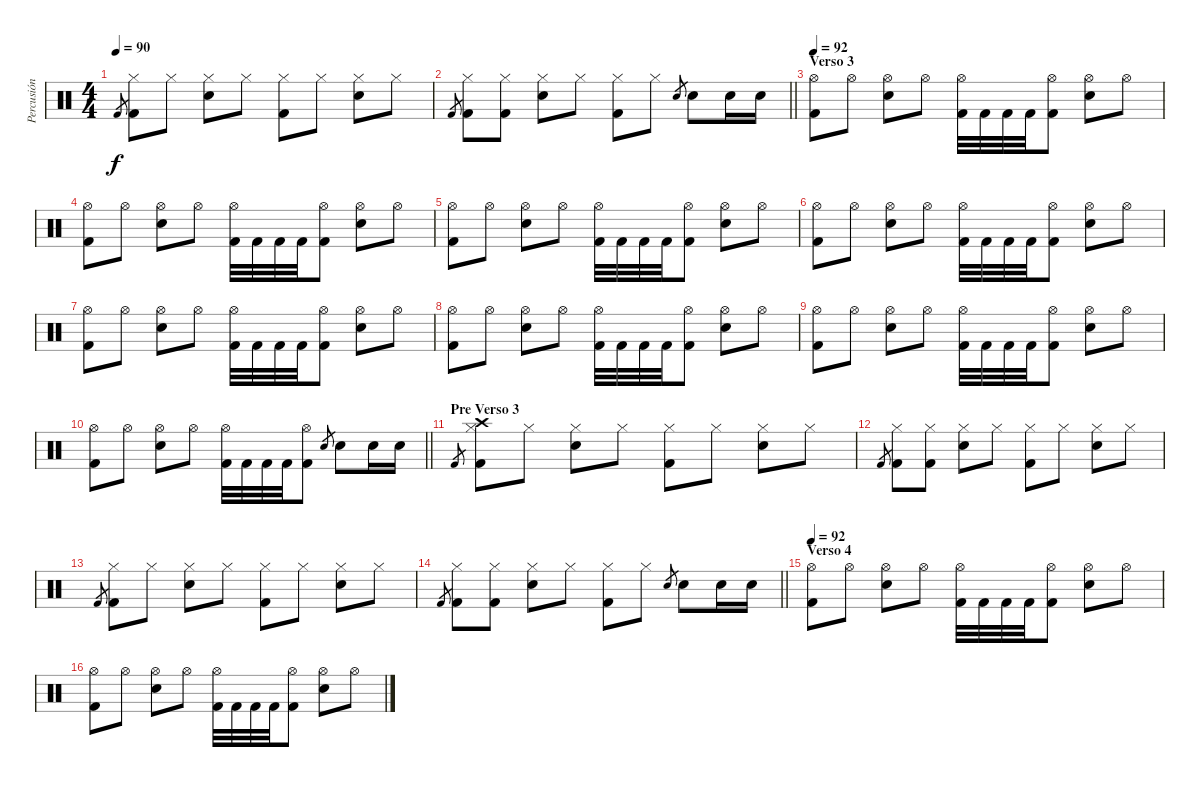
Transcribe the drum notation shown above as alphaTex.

\track ("Percusión" "Percusión") {instrument percussion}
\staff {score}
\articulation defaults
\ts (4 4)
\tempo 90
\clef neutral
\ks c "Kick (hit) 2".8{gr dy f}
("Hi-Hat (closed)" "Kick (hit) 2").8 "Hi-Hat (closed)".8 ("Hi-Hat (closed)" "Snare (hit) 2").8 "Hi-Hat (closed)".8 ("Hi-Hat (closed)" "Kick (hit) 2").8 "Hi-Hat (closed)".8 ("Hi-Hat (closed)" "Snare (hit) 2").8 "Hi-Hat (closed)".8 |
\barLineRight lightlight "Kick (hit) 2".8{gr}
("Hi-Hat (closed)" "Kick (hit) 2").8 ("Hi-Hat (closed)" "Kick (hit) 2").8 ("Hi-Hat (closed)" "Snare (hit) 2").8 "Hi-Hat (closed)".8 ("Hi-Hat (closed)" "Kick (hit) 2").8 "Hi-Hat (closed)".8 "Snare (hit) 2".8{gr} "Snare (hit) 2".8 "Snare (hit) 2".16 "Snare (hit) 2".16 |
\section ("" "Verso 3")
\tempo 92
("Hi-Hat (open)" "Kick (hit) 2").8 "Hi-Hat (open)".8 ("Hi-Hat (open)" "Snare (hit) 2").8 "Hi-Hat (open)".8 ("Hi-Hat (open)" "Kick (hit) 2").32 "Kick (hit) 2".32 "Kick (hit) 2".32 "Kick (hit) 2".32 ("Hi-Hat (open)" "Kick (hit) 2").8 ("Hi-Hat (open)" "Snare (hit) 2").8 "Hi-Hat (open)".8 |
("Hi-Hat (open)" "Kick (hit) 2").8 "Hi-Hat (open)".8 ("Hi-Hat (open)" "Snare (hit) 2").8 "Hi-Hat (open)".8 ("Hi-Hat (open)" "Kick (hit) 2").32 "Kick (hit) 2".32 "Kick (hit) 2".32 "Kick (hit) 2".32 ("Hi-Hat (open)" "Kick (hit) 2").8 ("Hi-Hat (open)" "Snare (hit) 2").8 "Hi-Hat (open)".8 |
("Hi-Hat (open)" "Kick (hit) 2").8 "Hi-Hat (open)".8 ("Hi-Hat (open)" "Snare (hit) 2").8 "Hi-Hat (open)".8 ("Hi-Hat (open)" "Kick (hit) 2").32 "Kick (hit) 2".32 "Kick (hit) 2".32 "Kick (hit) 2".32 ("Hi-Hat (open)" "Kick (hit) 2").8 ("Hi-Hat (open)" "Snare (hit) 2").8 "Hi-Hat (open)".8 |
("Hi-Hat (open)" "Kick (hit) 2").8 "Hi-Hat (open)".8 ("Hi-Hat (open)" "Snare (hit) 2").8 "Hi-Hat (open)".8 ("Hi-Hat (open)" "Kick (hit) 2").32 "Kick (hit) 2".32 "Kick (hit) 2".32 "Kick (hit) 2".32 ("Hi-Hat (open)" "Kick (hit) 2").8 ("Hi-Hat (open)" "Snare (hit) 2").8 "Hi-Hat (open)".8 |
("Hi-Hat (open)" "Kick (hit) 2").8 "Hi-Hat (open)".8 ("Hi-Hat (open)" "Snare (hit) 2").8 "Hi-Hat (open)".8 ("Hi-Hat (open)" "Kick (hit) 2").32 "Kick (hit) 2".32 "Kick (hit) 2".32 "Kick (hit) 2".32 ("Hi-Hat (open)" "Kick (hit) 2").8 ("Hi-Hat (open)" "Snare (hit) 2").8 "Hi-Hat (open)".8 |
("Hi-Hat (open)" "Kick (hit) 2").8 "Hi-Hat (open)".8 ("Hi-Hat (open)" "Snare (hit) 2").8 "Hi-Hat (open)".8 ("Hi-Hat (open)" "Kick (hit) 2").32 "Kick (hit) 2".32 "Kick (hit) 2".32 "Kick (hit) 2".32 ("Hi-Hat (open)" "Kick (hit) 2").8 ("Hi-Hat (open)" "Snare (hit) 2").8 "Hi-Hat (open)".8 |
("Hi-Hat (open)" "Kick (hit) 2").8 "Hi-Hat (open)".8 ("Hi-Hat (open)" "Snare (hit) 2").8 "Hi-Hat (open)".8 ("Hi-Hat (open)" "Kick (hit) 2").32 "Kick (hit) 2".32 "Kick (hit) 2".32 "Kick (hit) 2".32 ("Hi-Hat (open)" "Kick (hit) 2").8 ("Hi-Hat (open)" "Snare (hit) 2").8 "Hi-Hat (open)".8 |
\barLineRight lightlight
("Hi-Hat (open)" "Kick (hit) 2").8 "Hi-Hat (open)".8 ("Hi-Hat (open)" "Snare (hit) 2").8 "Hi-Hat (open)".8 ("Hi-Hat (open)" "Kick (hit) 2").32 "Kick (hit) 2".32 "Kick (hit) 2".32 "Kick (hit) 2".32 ("Hi-Hat (open)" "Kick (hit) 2").8 "Snare (hit) 2".8{gr} "Snare (hit) 2".8 "Snare (hit) 2".16 "Snare (hit) 2".16 |
\section ("" "Pre Verso 3")
"Kick (hit) 2".8{gr} ("Hi-Hat (closed)" "Crash high (hit)" "Kick (hit) 2").8 "Hi-Hat (closed)".8 ("Hi-Hat (closed)" "Snare (hit) 2").8 "Hi-Hat (closed)".8 ("Hi-Hat (closed)" "Kick (hit) 2").8 "Hi-Hat (closed)".8 ("Hi-Hat (closed)" "Snare (hit) 2").8 "Hi-Hat (closed)".8 |
"Kick (hit) 2".8{gr} ("Hi-Hat (closed)" "Kick (hit) 2").8 ("Hi-Hat (closed)" "Kick (hit) 2").8 ("Hi-Hat (closed)" "Snare (hit) 2").8 "Hi-Hat (closed)".8 ("Hi-Hat (closed)" "Kick (hit) 2").8 "Hi-Hat (closed)".8 ("Hi-Hat (closed)" "Snare (hit) 2").8 "Hi-Hat (closed)".8 |
"Kick (hit) 2".8{gr} ("Hi-Hat (closed)" "Kick (hit) 2").8 "Hi-Hat (closed)".8 ("Hi-Hat (closed)" "Snare (hit) 2").8 "Hi-Hat (closed)".8 ("Hi-Hat (closed)" "Kick (hit) 2").8 "Hi-Hat (closed)".8 ("Hi-Hat (closed)" "Snare (hit) 2").8 "Hi-Hat (closed)".8 |
\barLineRight lightlight "Kick (hit) 2".8{gr}
("Hi-Hat (closed)" "Kick (hit) 2").8 ("Hi-Hat (closed)" "Kick (hit) 2").8 ("Hi-Hat (closed)" "Snare (hit) 2").8 "Hi-Hat (closed)".8 ("Hi-Hat (closed)" "Kick (hit) 2").8 "Hi-Hat (closed)".8 "Snare (hit) 2".8{gr} "Snare (hit) 2".8 "Snare (hit) 2".16 "Snare (hit) 2".16 |
\section ("" "Verso 4")
\tempo 92
("Hi-Hat (open)" "Kick (hit) 2").8 "Hi-Hat (open)".8 ("Hi-Hat (open)" "Snare (hit) 2").8 "Hi-Hat (open)".8 ("Hi-Hat (open)" "Kick (hit) 2").32 "Kick (hit) 2".32 "Kick (hit) 2".32 "Kick (hit) 2".32 ("Hi-Hat (open)" "Kick (hit) 2").8 ("Hi-Hat (open)" "Snare (hit) 2").8 "Hi-Hat (open)".8 |
("Hi-Hat (open)" "Kick (hit) 2").8 "Hi-Hat (open)".8 ("Hi-Hat (open)" "Snare (hit) 2").8 "Hi-Hat (open)".8 ("Hi-Hat (open)" "Kick (hit) 2").32 "Kick (hit) 2".32 "Kick (hit) 2".32 "Kick (hit) 2".32 ("Hi-Hat (open)" "Kick (hit) 2").8 ("Hi-Hat (open)" "Snare (hit) 2").8 "Hi-Hat (open)".8
